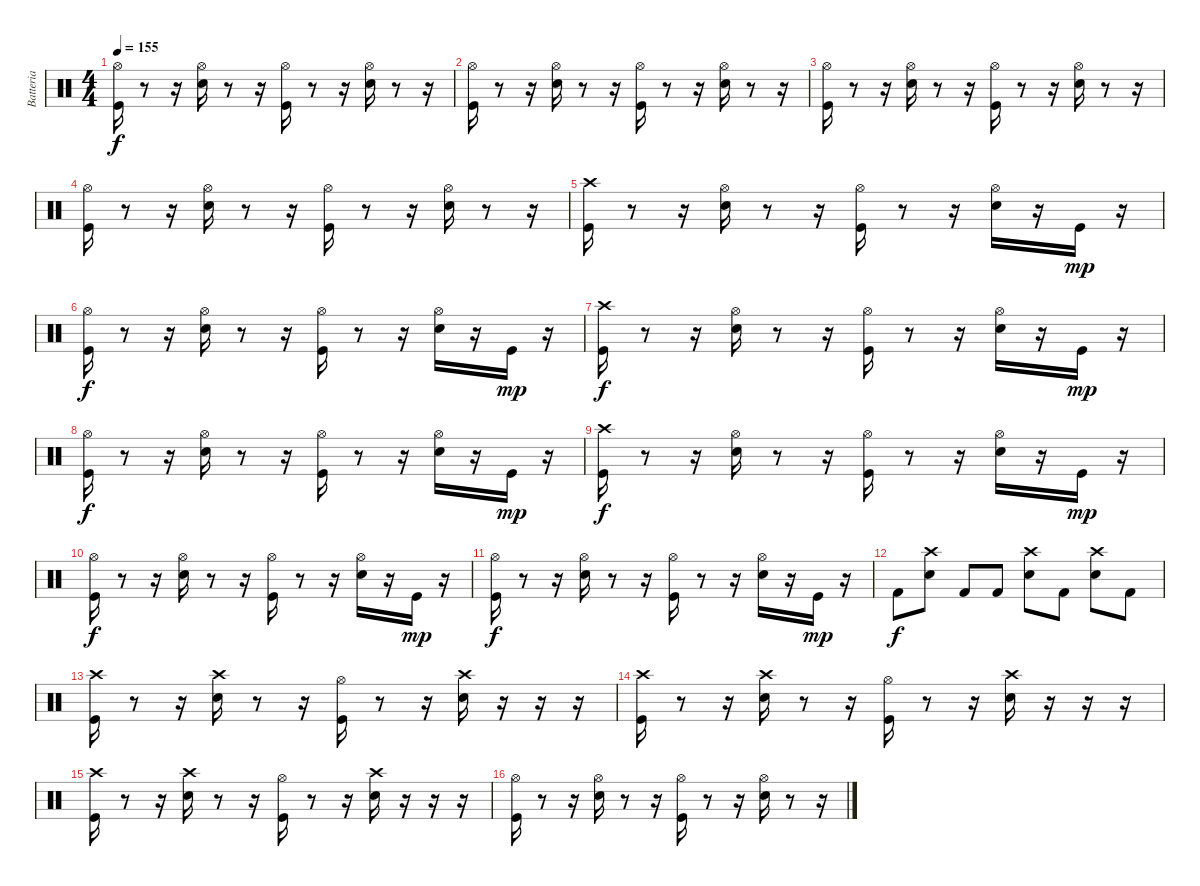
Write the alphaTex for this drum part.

\track ("Batteria" "Batteria") {instrument percussion bank 20}
\staff {score}
\articulation defaults
\ts (4 4)
\tempo 155
\clef neutral
\ks c
("Hi-Hat (open)" "Kick (hit)").16{dy f} r.8 r.16 ("Hi-Hat (open)" "Snare (hit) 2").16 r.8 r.16 ("Kick (hit)" "Hi-Hat (open)").16 r.8 r.16 ("Snare (hit) 2" "Hi-Hat (open)").16 r.8 r.16 |
("Hi-Hat (open)" "Kick (hit)").16 r.8 r.16 ("Hi-Hat (open)" "Snare (hit) 2").16 r.8 r.16 ("Kick (hit)" "Hi-Hat (open)").16 r.8 r.16 ("Snare (hit) 2" "Hi-Hat (open)").16 r.8 r.16 |
("Hi-Hat (open)" "Kick (hit)").16 r.8 r.16 ("Hi-Hat (open)" "Snare (hit) 2").16 r.8 r.16 ("Kick (hit)" "Hi-Hat (open)").16 r.8 r.16 ("Snare (hit) 2" "Hi-Hat (open)").16 r.8 r.16 |
("Hi-Hat (open)" "Kick (hit)").16 r.8 r.16 ("Hi-Hat (open)" "Snare (hit) 2").16 r.8 r.16 ("Kick (hit)" "Hi-Hat (open)").16 r.8 r.16 ("Snare (hit) 2" "Hi-Hat (open)").16 r.8 r.16 |
("Crash high (hit)" "Kick (hit)").16 r.8 r.16 ("Hi-Hat (open)" "Snare (hit) 2").16 r.8 r.16 ("Kick (hit)" "Hi-Hat (open)").16 r.8 r.16 ("Snare (hit) 2" "Hi-Hat (open)").16 r.16 "Kick (hit)".16{dy mp} r.16 |
("Hi-Hat (open)" "Kick (hit)").16{dy f} r.8 r.16 ("Hi-Hat (open)" "Snare (hit) 2").16 r.8 r.16 ("Kick (hit)" "Hi-Hat (open)").16 r.8 r.16 ("Snare (hit) 2" "Hi-Hat (open)").16 r.16 "Kick (hit)".16{dy mp} r.16 |
("Crash high (hit)" "Kick (hit)").16{dy f} r.8 r.16 ("Hi-Hat (open)" "Snare (hit) 2").16 r.8 r.16 ("Kick (hit)" "Hi-Hat (open)").16 r.8 r.16 ("Snare (hit) 2" "Hi-Hat (open)").16 r.16 "Kick (hit)".16{dy mp} r.16 |
("Hi-Hat (open)" "Kick (hit)").16{dy f} r.8 r.16 ("Hi-Hat (open)" "Snare (hit) 2").16 r.8 r.16 ("Kick (hit)" "Hi-Hat (open)").16 r.8 r.16 ("Snare (hit) 2" "Hi-Hat (open)").16 r.16 "Kick (hit)".16{dy mp} r.16 |
("Crash high (hit)" "Kick (hit)").16{dy f} r.8 r.16 ("Hi-Hat (open)" "Snare (hit) 2").16 r.8 r.16 ("Kick (hit)" "Hi-Hat (open)").16 r.8 r.16 ("Snare (hit) 2" "Hi-Hat (open)").16 r.16 "Kick (hit)".16{dy mp} r.16 |
("Hi-Hat (open)" "Kick (hit)").16{dy f} r.8 r.16 ("Hi-Hat (open)" "Snare (hit) 2").16 r.8 r.16 ("Kick (hit)" "Hi-Hat (open)").16 r.8 r.16 ("Snare (hit) 2" "Hi-Hat (open)").16 r.16 "Kick (hit)".16{dy mp} r.16 |
("Hi-Hat (open)" "Kick (hit)").16{dy f} r.8 r.16 ("Hi-Hat (open)" "Snare (hit) 2").16 r.8 r.16 ("Kick (hit)" "Hi-Hat (open)").16 r.8 r.16 ("Snare (hit) 2" "Hi-Hat (open)").16 r.16 "Kick (hit)".16{dy mp} r.16 |
"Kick (hit) 2".8{dy f} ("Crash high (hit)" "Snare (hit) 2").8 "Kick (hit) 2".8 "Kick (hit) 2".8 ("Crash high (hit)" "Snare (hit) 2").8 "Kick (hit) 2".8 ("Crash high (hit)" "Snare (hit) 2").8 "Kick (hit) 2".8 |
("Crash high (hit)" "Kick (hit)").16 r.8 r.16 ("Crash high (hit)" "Snare (hit) 2").16 r.8 r.16 ("Kick (hit)" "Hi-Hat (open)").16 r.8 r.16 ("Snare (hit) 2" "Crash high (hit)").16 r.16 r.16 r.16 |
("Crash high (hit)" "Kick (hit)").16 r.8 r.16 ("Crash high (hit)" "Snare (hit) 2").16 r.8 r.16 ("Kick (hit)" "Hi-Hat (open)").16 r.8 r.16 ("Snare (hit) 2" "Crash high (hit)").16 r.16 r.16 r.16 |
("Crash high (hit)" "Kick (hit)").16 r.8 r.16 ("Crash high (hit)" "Snare (hit) 2").16 r.8 r.16 ("Kick (hit)" "Hi-Hat (open)").16 r.8 r.16 ("Snare (hit) 2" "Crash high (hit)").16 r.16 r.16 r.16 |
("Hi-Hat (open)" "Kick (hit)").16 r.8 r.16 ("Hi-Hat (open)" "Snare (hit) 2").16 r.8 r.16 ("Kick (hit)" "Hi-Hat (open)").16 r.8 r.16 ("Snare (hit) 2" "Hi-Hat (open)").16 r.8 r.16
